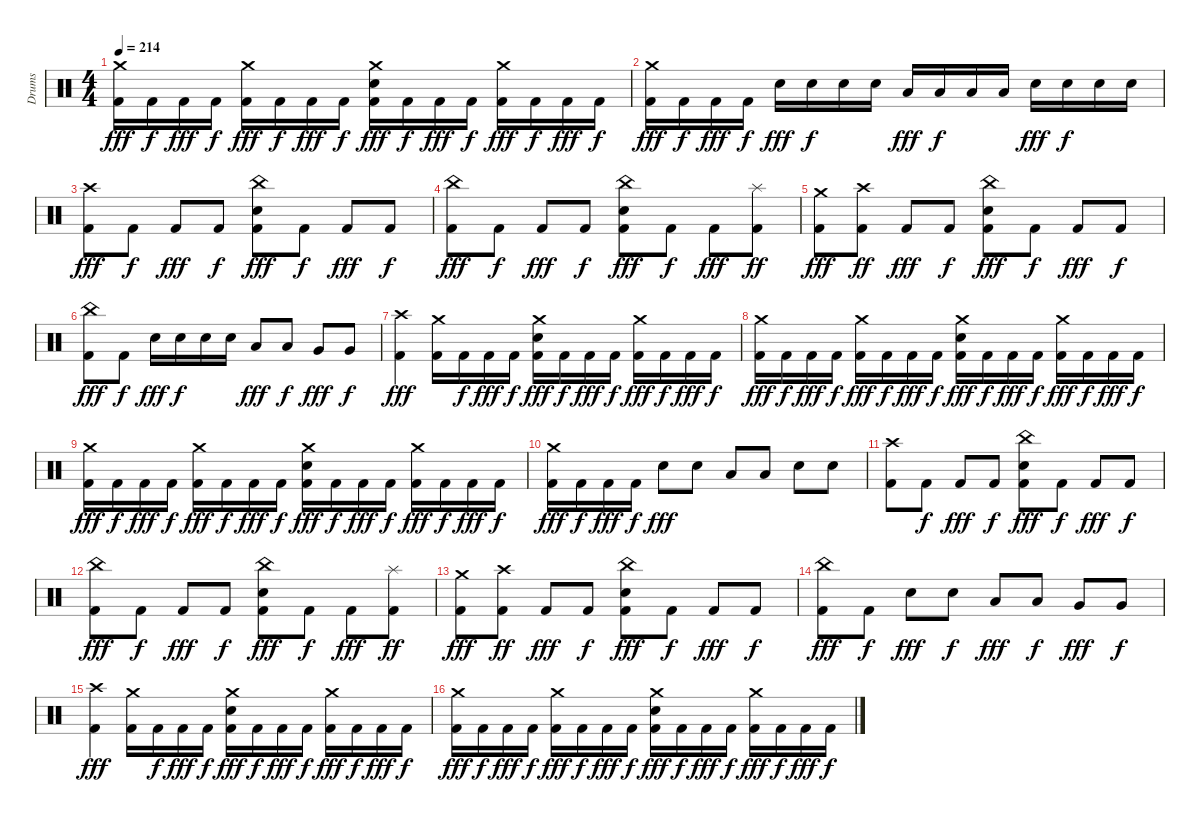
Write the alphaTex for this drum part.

\track ("Drums" "Drums") {instrument percussion}
\staff {score}
\articulation defaults
\ts (4 4)
\tempo 214
\clef neutral
\ks c
("Crash medium (hit)" "Kick (hit) 2").16{dy fff} "Kick (hit) 2".16{dy f} "Kick (hit) 2".16{dy fff} "Kick (hit) 2".16{dy f} ("Crash medium (hit)" "Kick (hit) 2").16{dy fff} "Kick (hit) 2".16{dy f} "Kick (hit) 2".16{dy fff} "Kick (hit) 2".16{dy f} ("Crash medium (hit)" "Electric Snare (hit)" "Kick (hit) 2").16{dy fff} "Kick (hit) 2".16{dy f} "Kick (hit) 2".16{dy fff} "Kick (hit) 2".16{dy f} ("Crash medium (hit)" "Kick (hit) 2").16{dy fff} "Kick (hit) 2".16{dy f} "Kick (hit) 2".16{dy fff} "Kick (hit) 2".16{dy f} |
("Crash medium (hit)" "Kick (hit) 2").16{dy fff} "Kick (hit) 2".16{dy f} "Kick (hit) 2".16{dy fff} "Kick (hit) 2".16{dy f} "Electric Snare (hit)".16{dy fff} "Electric Snare (hit)".16{dy f} "Electric Snare (hit)".16 "Electric Snare (hit)".16 "Low Tom (hit)".16{dy fff} "Low Tom (hit)".16{dy f} "Low Tom (hit)".16 "Low Tom (hit)".16 "Electric Snare (hit)".16{dy fff} "Electric Snare (hit)".16{dy f} "Electric Snare (hit)".16 "Electric Snare (hit)".16 |
("Crash high (hit)" "Kick (hit) 2").8{dy fff} "Kick (hit) 2".8{dy f} "Kick (hit) 2".8{dy fff} "Kick (hit) 2".8{dy f} ("China (hit)" "Electric Snare (hit)" "Kick (hit) 2").8{dy fff} "Kick (hit) 2".8{dy f} "Kick (hit) 2".8{dy fff} "Kick (hit) 2".8{dy f} |
("China (hit)" "Kick (hit) 2").8{dy fff} "Kick (hit) 2".8{dy f} "Kick (hit) 2".8{dy fff} "Kick (hit) 2".8{dy f} ("China (hit)" "Electric Snare (hit)" "Kick (hit) 2").8{dy fff} "Kick (hit) 2".8{dy f} "Kick (hit) 2".8{dy fff} ("Splash (hit)" "Kick (hit) 2").8{dy ff} |
("Crash medium (hit)" "Kick (hit) 2").8{dy fff} ("Crash high (hit)" "Kick (hit) 2").8{dy ff} "Kick (hit) 2".8{dy fff} "Kick (hit) 2".8{dy f} ("China (hit)" "Electric Snare (hit)" "Kick (hit) 2").8{dy fff} "Kick (hit) 2".8{dy f} "Kick (hit) 2".8{dy fff} "Kick (hit) 2".8{dy f} |
("China (hit)" "Kick (hit) 2").8{dy fff} "Kick (hit) 2".8{dy f} "Electric Snare (hit)".16{dy fff} "Electric Snare (hit)".16{dy f} "Electric Snare (hit)".16 "Electric Snare (hit)".16 "Low Tom (hit)".8{dy fff} "Low Tom (hit)".8{dy f} "Very Low Tom (hit)".8{dy fff} "Very Low Tom (hit)".8{dy f} |
("Crash high (hit)" "Kick (hit) 2").4{dy fff} ("Crash medium (hit)" "Kick (hit) 2").16 "Kick (hit) 2".16{dy f} "Kick (hit) 2".16{dy fff} "Kick (hit) 2".16{dy f} ("Crash medium (hit)" "Electric Snare (hit)" "Kick (hit) 2").16{dy fff} "Kick (hit) 2".16{dy f} "Kick (hit) 2".16{dy fff} "Kick (hit) 2".16{dy f} ("Crash medium (hit)" "Kick (hit) 2").16{dy fff} "Kick (hit) 2".16{dy f} "Kick (hit) 2".16{dy fff} "Kick (hit) 2".16{dy f} |
("Crash medium (hit)" "Kick (hit) 2").16{dy fff} "Kick (hit) 2".16{dy f} "Kick (hit) 2".16{dy fff} "Kick (hit) 2".16{dy f} ("Crash medium (hit)" "Kick (hit) 2").16{dy fff} "Kick (hit) 2".16{dy f} "Kick (hit) 2".16{dy fff} "Kick (hit) 2".16{dy f} ("Crash medium (hit)" "Electric Snare (hit)" "Kick (hit) 2").16{dy fff} "Kick (hit) 2".16{dy f} "Kick (hit) 2".16{dy fff} "Kick (hit) 2".16{dy f} ("Crash medium (hit)" "Kick (hit) 2").16{dy fff} "Kick (hit) 2".16{dy f} "Kick (hit) 2".16{dy fff} "Kick (hit) 2".16{dy f} |
("Crash medium (hit)" "Kick (hit) 2").16{dy fff} "Kick (hit) 2".16{dy f} "Kick (hit) 2".16{dy fff} "Kick (hit) 2".16{dy f} ("Crash medium (hit)" "Kick (hit) 2").16{dy fff} "Kick (hit) 2".16{dy f} "Kick (hit) 2".16{dy fff} "Kick (hit) 2".16{dy f} ("Crash medium (hit)" "Electric Snare (hit)" "Kick (hit) 2").16{dy fff} "Kick (hit) 2".16{dy f} "Kick (hit) 2".16{dy fff} "Kick (hit) 2".16{dy f} ("Crash medium (hit)" "Kick (hit) 2").16{dy fff} "Kick (hit) 2".16{dy f} "Kick (hit) 2".16{dy fff} "Kick (hit) 2".16{dy f} |
("Crash medium (hit)" "Kick (hit) 2").16{dy fff} "Kick (hit) 2".16{dy f} "Kick (hit) 2".16{dy fff} "Kick (hit) 2".16{dy f} "Electric Snare (hit)".8{dy fff} "Electric Snare (hit)".8 "Low Tom (hit)".8 "Low Tom (hit)".8 "Electric Snare (hit)".8 "Electric Snare (hit)".8 |
("Crash high (hit)" "Kick (hit) 2").8 "Kick (hit) 2".8{dy f} "Kick (hit) 2".8{dy fff} "Kick (hit) 2".8{dy f} ("China (hit)" "Electric Snare (hit)" "Kick (hit) 2").8{dy fff} "Kick (hit) 2".8{dy f} "Kick (hit) 2".8{dy fff} "Kick (hit) 2".8{dy f} |
("China (hit)" "Kick (hit) 2").8{dy fff} "Kick (hit) 2".8{dy f} "Kick (hit) 2".8{dy fff} "Kick (hit) 2".8{dy f} ("China (hit)" "Electric Snare (hit)" "Kick (hit) 2").8{dy fff} "Kick (hit) 2".8{dy f} "Kick (hit) 2".8{dy fff} ("Splash (hit)" "Kick (hit) 2").8{dy ff} |
("Crash medium (hit)" "Kick (hit) 2").8{dy fff} ("Crash high (hit)" "Kick (hit) 2").8{dy ff} "Kick (hit) 2".8{dy fff} "Kick (hit) 2".8{dy f} ("China (hit)" "Electric Snare (hit)" "Kick (hit) 2").8{dy fff} "Kick (hit) 2".8{dy f} "Kick (hit) 2".8{dy fff} "Kick (hit) 2".8{dy f} |
("China (hit)" "Kick (hit) 2").8{dy fff} "Kick (hit) 2".8{dy f} "Electric Snare (hit)".8{dy fff} "Electric Snare (hit)".8{dy f} "Low Tom (hit)".8{dy fff} "Low Tom (hit)".8{dy f} "Very Low Tom (hit)".8{dy fff} "Very Low Tom (hit)".8{dy f} |
("Crash high (hit)" "Kick (hit) 2").4{dy fff} ("Crash medium (hit)" "Kick (hit) 2").16 "Kick (hit) 2".16{dy f} "Kick (hit) 2".16{dy fff} "Kick (hit) 2".16{dy f} ("Crash medium (hit)" "Electric Snare (hit)" "Kick (hit) 2").16{dy fff} "Kick (hit) 2".16{dy f} "Kick (hit) 2".16{dy fff} "Kick (hit) 2".16{dy f} ("Crash medium (hit)" "Kick (hit) 2").16{dy fff} "Kick (hit) 2".16{dy f} "Kick (hit) 2".16{dy fff} "Kick (hit) 2".16{dy f} |
("Crash medium (hit)" "Kick (hit) 2").16{dy fff} "Kick (hit) 2".16{dy f} "Kick (hit) 2".16{dy fff} "Kick (hit) 2".16{dy f} ("Crash medium (hit)" "Kick (hit) 2").16{dy fff} "Kick (hit) 2".16{dy f} "Kick (hit) 2".16{dy fff} "Kick (hit) 2".16{dy f} ("Crash medium (hit)" "Electric Snare (hit)" "Kick (hit) 2").16{dy fff} "Kick (hit) 2".16{dy f} "Kick (hit) 2".16{dy fff} "Kick (hit) 2".16{dy f} ("Crash medium (hit)" "Kick (hit) 2").16{dy fff} "Kick (hit) 2".16{dy f} "Kick (hit) 2".16{dy fff} "Kick (hit) 2".16{dy f}
